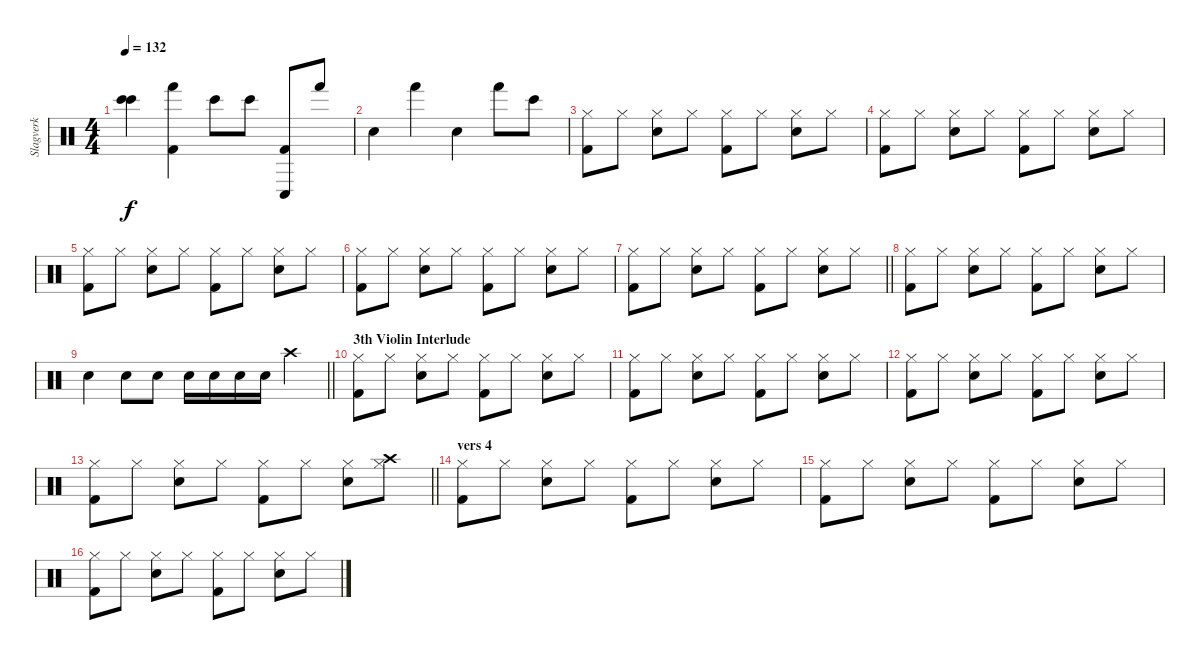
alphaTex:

\track ("Slagverk" "Slagverk") {instrument percussion}
\staff {score}
\articulation defaults
\ts (4 4)
\tempo 132
\clef neutral
\ks c
("Bongo High (hit)" "Bongo High (hit)").4{dy f} ("Kick (hit) 2" "Hand (hit)").4 "Bongo High (hit)".8 "Bongo High (hit)".8 ("Kick (hit) 2" "Conga low (hit)").8 "Hand (hit)".8 |
"Snare (hit) 2".4 "Hand (hit)".4 "Snare (hit) 2".4 "Hand (hit)".8 "Bongo High (hit)".8 |
("Kick (hit) 2" "Hi-Hat (closed)").8 "Hi-Hat (closed)".8 ("Snare (hit) 2" "Hi-Hat (closed)").8 "Hi-Hat (closed)".8 ("Kick (hit) 2" "Hi-Hat (closed)").8 "Hi-Hat (closed)".8 ("Snare (hit) 2" "Hi-Hat (closed)").8 "Hi-Hat (closed)".8 |
("Kick (hit) 2" "Hi-Hat (closed)").8 "Hi-Hat (closed)".8 ("Snare (hit) 2" "Hi-Hat (closed)").8 "Hi-Hat (closed)".8 ("Kick (hit) 2" "Hi-Hat (closed)").8 "Hi-Hat (closed)".8 ("Snare (hit) 2" "Hi-Hat (closed)").8 "Hi-Hat (closed)".8 |
("Kick (hit) 2" "Hi-Hat (closed)").8 "Hi-Hat (closed)".8 ("Snare (hit) 2" "Hi-Hat (closed)").8 "Hi-Hat (closed)".8 ("Kick (hit) 2" "Hi-Hat (closed)").8 "Hi-Hat (closed)".8 ("Snare (hit) 2" "Hi-Hat (closed)").8 "Hi-Hat (closed)".8 |
("Kick (hit) 2" "Hi-Hat (closed)").8 "Hi-Hat (closed)".8 ("Snare (hit) 2" "Hi-Hat (closed)").8 "Hi-Hat (closed)".8 ("Kick (hit) 2" "Hi-Hat (closed)").8 "Hi-Hat (closed)".8 ("Snare (hit) 2" "Hi-Hat (closed)").8 "Hi-Hat (closed)".8 |
\barLineRight lightlight
("Kick (hit) 2" "Hi-Hat (closed)").8 "Hi-Hat (closed)".8 ("Snare (hit) 2" "Hi-Hat (closed)").8 "Hi-Hat (closed)".8 ("Kick (hit) 2" "Hi-Hat (closed)").8 "Hi-Hat (closed)".8 ("Snare (hit) 2" "Hi-Hat (closed)").8 "Hi-Hat (closed)".8 |
("Kick (hit) 2" "Hi-Hat (closed)").8 "Hi-Hat (closed)".8 ("Snare (hit) 2" "Hi-Hat (closed)").8 "Hi-Hat (closed)".8 ("Kick (hit) 2" "Hi-Hat (closed)").8 "Hi-Hat (closed)".8 ("Snare (hit) 2" "Hi-Hat (closed)").8 "Hi-Hat (closed)".8 |
\barLineRight lightlight "Snare (hit) 2".4 "Snare (hit) 2".8 "Snare (hit) 2".8 "Snare (hit) 2".16 "Snare (hit) 2".16 "Snare (hit) 2".16 "Snare (hit) 2".16 "Crash high (hit)".4
|
\section ("" "3th Violin Interlude")
("Kick (hit) 2" "Hi-Hat (closed)").8 "Hi-Hat (closed)".8 ("Snare (hit) 2" "Hi-Hat (closed)").8 "Hi-Hat (closed)".8 ("Kick (hit) 2" "Hi-Hat (closed)").8 "Hi-Hat (closed)".8 ("Snare (hit) 2" "Hi-Hat (closed)").8 "Hi-Hat (closed)".8 |
("Kick (hit) 2" "Hi-Hat (closed)").8 "Hi-Hat (closed)".8 ("Snare (hit) 2" "Hi-Hat (closed)").8 "Hi-Hat (closed)".8 ("Kick (hit) 2" "Hi-Hat (closed)").8 "Hi-Hat (closed)".8 ("Snare (hit) 2" "Hi-Hat (closed)").8 "Hi-Hat (closed)".8 |
("Kick (hit) 2" "Hi-Hat (closed)").8 "Hi-Hat (closed)".8 ("Snare (hit) 2" "Hi-Hat (closed)").8 "Hi-Hat (closed)".8 ("Kick (hit) 2" "Hi-Hat (closed)").8 "Hi-Hat (closed)".8 ("Snare (hit) 2" "Hi-Hat (closed)").8 "Hi-Hat (closed)".8 |
\barLineRight lightlight
("Kick (hit) 2" "Hi-Hat (closed)").8 "Hi-Hat (closed)".8 ("Snare (hit) 2" "Hi-Hat (closed)").8 "Hi-Hat (closed)".8 ("Kick (hit) 2" "Hi-Hat (closed)").8 "Hi-Hat (closed)".8 ("Snare (hit) 2" "Hi-Hat (closed)").8 ("Hi-Hat (closed)" "Crash high (hit)").8 |
\section ("" "vers 4")
("Kick (hit) 2" "Hi-Hat (closed)").8 "Hi-Hat (closed)".8 ("Snare (hit) 2" "Hi-Hat (closed)").8 "Hi-Hat (closed)".8 ("Kick (hit) 2" "Hi-Hat (closed)").8 "Hi-Hat (closed)".8 ("Snare (hit) 2" "Hi-Hat (closed)").8 "Hi-Hat (closed)".8 |
("Kick (hit) 2" "Hi-Hat (closed)").8 "Hi-Hat (closed)".8 ("Snare (hit) 2" "Hi-Hat (closed)").8 "Hi-Hat (closed)".8 ("Kick (hit) 2" "Hi-Hat (closed)").8 "Hi-Hat (closed)".8 ("Snare (hit) 2" "Hi-Hat (closed)").8 "Hi-Hat (closed)".8 |
("Kick (hit) 2" "Hi-Hat (closed)").8 "Hi-Hat (closed)".8 ("Snare (hit) 2" "Hi-Hat (closed)").8 "Hi-Hat (closed)".8 ("Kick (hit) 2" "Hi-Hat (closed)").8 "Hi-Hat (closed)".8 ("Snare (hit) 2" "Hi-Hat (closed)").8 "Hi-Hat (closed)".8
